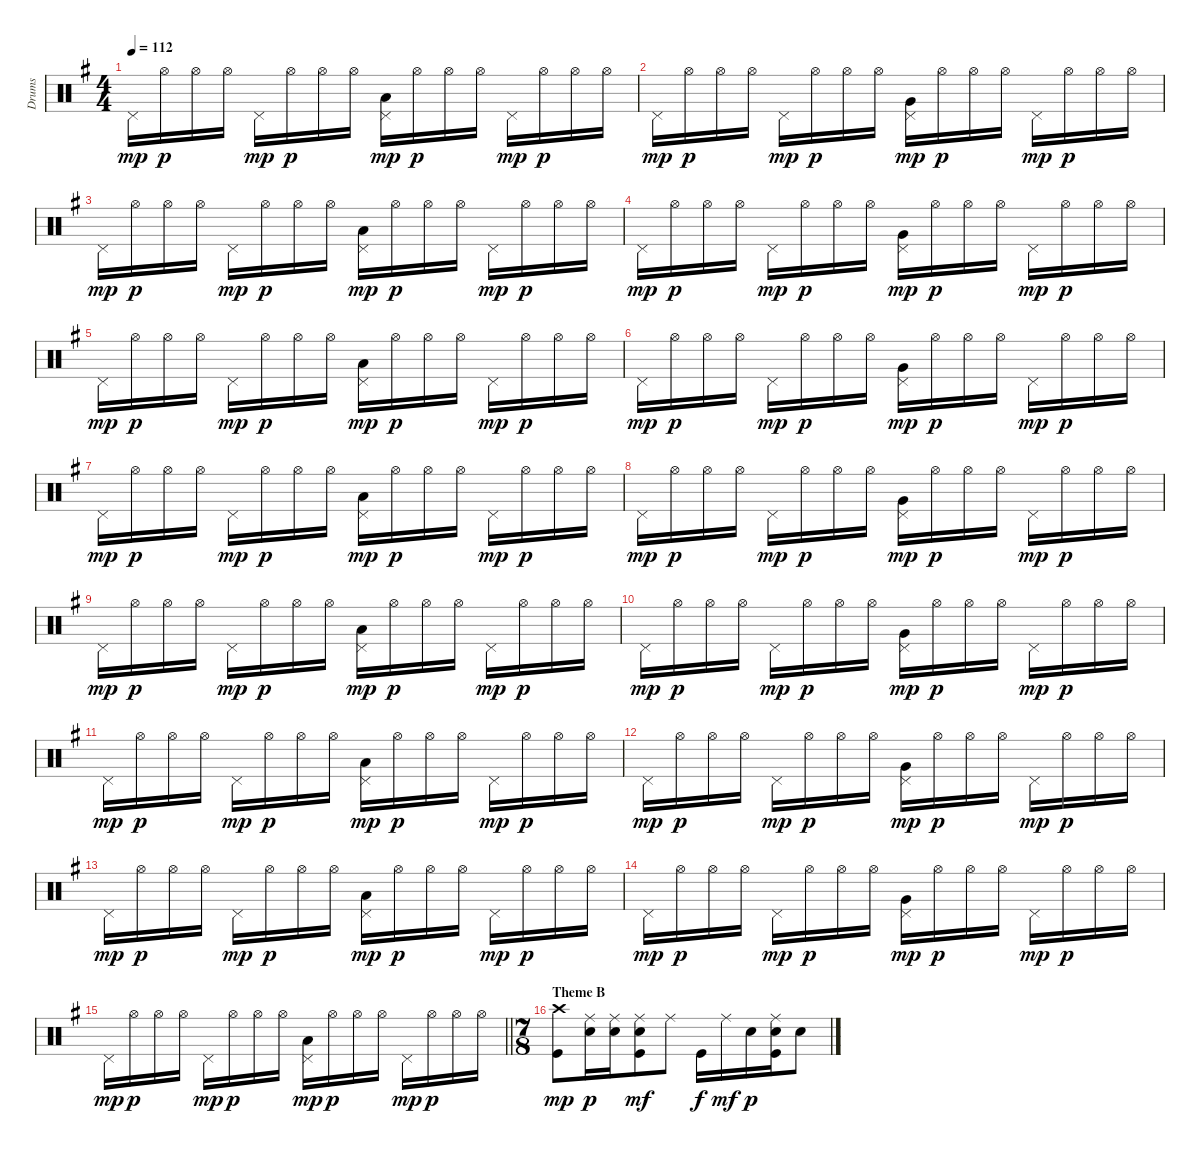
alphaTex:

\track ("Drums" "Drums") {instrument percussion}
\staff {score}
\articulation defaults
\ts (4 4)
\tempo 112
\clef neutral
\ks g "Pedal Hi-Hat (hit)".16{dy mp} "Hi-Hat (open)".16{dy p} "Hi-Hat (open)".16 "Hi-Hat (open)".16 "Pedal Hi-Hat (hit)".16{dy mp} "Hi-Hat (open)".16{dy p} "Hi-Hat (open)".16 "Hi-Hat (open)".16
("Pedal Hi-Hat (hit)" "Low Floor Tom (hit)").16{dy mp} "Hi-Hat (open)".16{dy p} "Hi-Hat (open)".16 "Hi-Hat (open)".16 "Pedal Hi-Hat (hit)".16{dy mp} "Hi-Hat (open)".16{dy p} "Hi-Hat (open)".16 "Hi-Hat (open)".16 |
"Pedal Hi-Hat (hit)".16{dy mp} "Hi-Hat (open)".16{dy p} "Hi-Hat (open)".16 "Hi-Hat (open)".16 "Pedal Hi-Hat (hit)".16{dy mp} "Hi-Hat (open)".16{dy p} "Hi-Hat (open)".16 "Hi-Hat (open)".16 ("Pedal Hi-Hat (hit)" "Very Low Tom (hit)").16{dy mp} "Hi-Hat (open)".16{dy p} "Hi-Hat (open)".16 "Hi-Hat (open)".16 "Pedal Hi-Hat (hit)".16{dy mp} "Hi-Hat (open)".16{dy p} "Hi-Hat (open)".16 "Hi-Hat (open)".16 |
"Pedal Hi-Hat (hit)".16{dy mp} "Hi-Hat (open)".16{dy p} "Hi-Hat (open)".16 "Hi-Hat (open)".16 "Pedal Hi-Hat (hit)".16{dy mp} "Hi-Hat (open)".16{dy p} "Hi-Hat (open)".16 "Hi-Hat (open)".16 ("Pedal Hi-Hat (hit)" "Low Floor Tom (hit)").16{dy mp} "Hi-Hat (open)".16{dy p} "Hi-Hat (open)".16 "Hi-Hat (open)".16 "Pedal Hi-Hat (hit)".16{dy mp} "Hi-Hat (open)".16{dy p} "Hi-Hat (open)".16 "Hi-Hat (open)".16 |
"Pedal Hi-Hat (hit)".16{dy mp} "Hi-Hat (open)".16{dy p} "Hi-Hat (open)".16 "Hi-Hat (open)".16 "Pedal Hi-Hat (hit)".16{dy mp} "Hi-Hat (open)".16{dy p} "Hi-Hat (open)".16 "Hi-Hat (open)".16 ("Pedal Hi-Hat (hit)" "Very Low Tom (hit)").16{dy mp} "Hi-Hat (open)".16{dy p} "Hi-Hat (open)".16 "Hi-Hat (open)".16 "Pedal Hi-Hat (hit)".16{dy mp} "Hi-Hat (open)".16{dy p} "Hi-Hat (open)".16 "Hi-Hat (open)".16 |
"Pedal Hi-Hat (hit)".16{dy mp} "Hi-Hat (open)".16{dy p} "Hi-Hat (open)".16 "Hi-Hat (open)".16 "Pedal Hi-Hat (hit)".16{dy mp} "Hi-Hat (open)".16{dy p} "Hi-Hat (open)".16 "Hi-Hat (open)".16 ("Pedal Hi-Hat (hit)" "Low Floor Tom (hit)").16{dy mp} "Hi-Hat (open)".16{dy p} "Hi-Hat (open)".16 "Hi-Hat (open)".16 "Pedal Hi-Hat (hit)".16{dy mp} "Hi-Hat (open)".16{dy p} "Hi-Hat (open)".16 "Hi-Hat (open)".16 |
"Pedal Hi-Hat (hit)".16{dy mp} "Hi-Hat (open)".16{dy p} "Hi-Hat (open)".16 "Hi-Hat (open)".16 "Pedal Hi-Hat (hit)".16{dy mp} "Hi-Hat (open)".16{dy p} "Hi-Hat (open)".16 "Hi-Hat (open)".16 ("Pedal Hi-Hat (hit)" "Very Low Tom (hit)").16{dy mp} "Hi-Hat (open)".16{dy p} "Hi-Hat (open)".16 "Hi-Hat (open)".16 "Pedal Hi-Hat (hit)".16{dy mp} "Hi-Hat (open)".16{dy p} "Hi-Hat (open)".16 "Hi-Hat (open)".16 |
"Pedal Hi-Hat (hit)".16{dy mp} "Hi-Hat (open)".16{dy p} "Hi-Hat (open)".16 "Hi-Hat (open)".16 "Pedal Hi-Hat (hit)".16{dy mp} "Hi-Hat (open)".16{dy p} "Hi-Hat (open)".16 "Hi-Hat (open)".16 ("Pedal Hi-Hat (hit)" "Low Floor Tom (hit)").16{dy mp} "Hi-Hat (open)".16{dy p} "Hi-Hat (open)".16 "Hi-Hat (open)".16 "Pedal Hi-Hat (hit)".16{dy mp} "Hi-Hat (open)".16{dy p} "Hi-Hat (open)".16 "Hi-Hat (open)".16 |
"Pedal Hi-Hat (hit)".16{dy mp} "Hi-Hat (open)".16{dy p} "Hi-Hat (open)".16 "Hi-Hat (open)".16 "Pedal Hi-Hat (hit)".16{dy mp} "Hi-Hat (open)".16{dy p} "Hi-Hat (open)".16 "Hi-Hat (open)".16 ("Pedal Hi-Hat (hit)" "Very Low Tom (hit)").16{dy mp} "Hi-Hat (open)".16{dy p} "Hi-Hat (open)".16 "Hi-Hat (open)".16 "Pedal Hi-Hat (hit)".16{dy mp} "Hi-Hat (open)".16{dy p} "Hi-Hat (open)".16 "Hi-Hat (open)".16 |
"Pedal Hi-Hat (hit)".16{dy mp} "Hi-Hat (open)".16{dy p} "Hi-Hat (open)".16 "Hi-Hat (open)".16 "Pedal Hi-Hat (hit)".16{dy mp} "Hi-Hat (open)".16{dy p} "Hi-Hat (open)".16 "Hi-Hat (open)".16 ("Pedal Hi-Hat (hit)" "Low Floor Tom (hit)").16{dy mp} "Hi-Hat (open)".16{dy p} "Hi-Hat (open)".16 "Hi-Hat (open)".16 "Pedal Hi-Hat (hit)".16{dy mp} "Hi-Hat (open)".16{dy p} "Hi-Hat (open)".16 "Hi-Hat (open)".16 |
"Pedal Hi-Hat (hit)".16{dy mp} "Hi-Hat (open)".16{dy p} "Hi-Hat (open)".16 "Hi-Hat (open)".16 "Pedal Hi-Hat (hit)".16{dy mp} "Hi-Hat (open)".16{dy p} "Hi-Hat (open)".16 "Hi-Hat (open)".16 ("Pedal Hi-Hat (hit)" "Very Low Tom (hit)").16{dy mp} "Hi-Hat (open)".16{dy p} "Hi-Hat (open)".16 "Hi-Hat (open)".16 "Pedal Hi-Hat (hit)".16{dy mp} "Hi-Hat (open)".16{dy p} "Hi-Hat (open)".16 "Hi-Hat (open)".16 |
"Pedal Hi-Hat (hit)".16{dy mp} "Hi-Hat (open)".16{dy p} "Hi-Hat (open)".16 "Hi-Hat (open)".16 "Pedal Hi-Hat (hit)".16{dy mp} "Hi-Hat (open)".16{dy p} "Hi-Hat (open)".16 "Hi-Hat (open)".16 ("Pedal Hi-Hat (hit)" "Low Floor Tom (hit)").16{dy mp} "Hi-Hat (open)".16{dy p} "Hi-Hat (open)".16 "Hi-Hat (open)".16 "Pedal Hi-Hat (hit)".16{dy mp} "Hi-Hat (open)".16{dy p} "Hi-Hat (open)".16 "Hi-Hat (open)".16 |
"Pedal Hi-Hat (hit)".16{dy mp} "Hi-Hat (open)".16{dy p} "Hi-Hat (open)".16 "Hi-Hat (open)".16 "Pedal Hi-Hat (hit)".16{dy mp} "Hi-Hat (open)".16{dy p} "Hi-Hat (open)".16 "Hi-Hat (open)".16 ("Pedal Hi-Hat (hit)" "Very Low Tom (hit)").16{dy mp} "Hi-Hat (open)".16{dy p} "Hi-Hat (open)".16 "Hi-Hat (open)".16 "Pedal Hi-Hat (hit)".16{dy mp} "Hi-Hat (open)".16{dy p} "Hi-Hat (open)".16 "Hi-Hat (open)".16 |
"Pedal Hi-Hat (hit)".16{dy mp} "Hi-Hat (open)".16{dy p} "Hi-Hat (open)".16 "Hi-Hat (open)".16 "Pedal Hi-Hat (hit)".16{dy mp} "Hi-Hat (open)".16{dy p} "Hi-Hat (open)".16 "Hi-Hat (open)".16 ("Pedal Hi-Hat (hit)" "Low Floor Tom (hit)").16{dy mp} "Hi-Hat (open)".16{dy p} "Hi-Hat (open)".16 "Hi-Hat (open)".16 "Pedal Hi-Hat (hit)".16{dy mp} "Hi-Hat (open)".16{dy p} "Hi-Hat (open)".16 "Hi-Hat (open)".16 |
"Pedal Hi-Hat (hit)".16{dy mp} "Hi-Hat (open)".16{dy p} "Hi-Hat (open)".16 "Hi-Hat (open)".16 "Pedal Hi-Hat (hit)".16{dy mp} "Hi-Hat (open)".16{dy p} "Hi-Hat (open)".16 "Hi-Hat (open)".16 ("Pedal Hi-Hat (hit)" "Very Low Tom (hit)").16{dy mp} "Hi-Hat (open)".16{dy p} "Hi-Hat (open)".16 "Hi-Hat (open)".16 "Pedal Hi-Hat (hit)".16{dy mp} "Hi-Hat (open)".16{dy p} "Hi-Hat (open)".16 "Hi-Hat (open)".16 |
\barLineRight lightlight "Pedal Hi-Hat (hit)".16{dy mp} "Hi-Hat (open)".16{dy p} "Hi-Hat (open)".16 "Hi-Hat (open)".16 "Pedal Hi-Hat (hit)".16{dy mp} "Hi-Hat (open)".16{dy p} "Hi-Hat (open)".16 "Hi-Hat (open)".16
("Pedal Hi-Hat (hit)" "Low Floor Tom (hit)").16{dy mp} "Hi-Hat (open)".16{dy p} "Hi-Hat (open)".16 "Hi-Hat (open)".16 "Pedal Hi-Hat (hit)".16{dy mp} "Hi-Hat (open)".16{dy p} "Hi-Hat (open)".16 "Hi-Hat (open)".16 |
\ts (7 8)
\section ("" "Theme B")
("Crash high (hit)" "Kick (hit)").8{dy mp} ("Ride (middle)" "Snare (hit) 2").16{dy p} ("Ride (middle)" "Snare (hit) 2").16 ("Ride (middle)" "Snare (hit) 2" "Kick (hit)").8{dy mf} "Ride (middle)".8 "Kick (hit)".16{dy f} "Ride (middle)".16{dy mf} "Snare (hit) 2".16{dy p} ("Ride (middle)" "Snare (hit) 2" "Kick (hit)").16 "Snare (hit) 2".8
